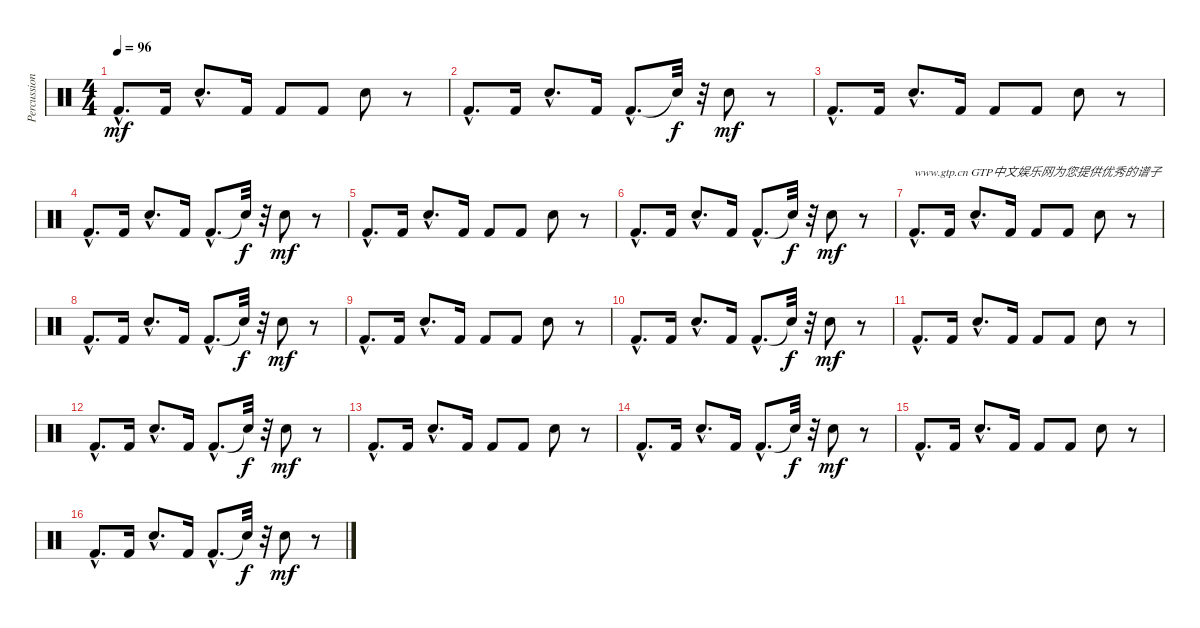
\track ("Percussion" "Percussion") {instrument percussion}
\staff {score}
\articulation defaults
\ts (4 4)
\tempo 96
\clef neutral
\ks c "Kick (hit) 2"{hac}.8{d dy mf} "Kick (hit) 2".16 "Electric Snare (hit)"{hac}.8{d} "Kick (hit) 2".16 "Kick (hit) 2".8 "Kick (hit) 2".8 "Electric Snare (hit)".8
r.8 |
"Kick (hit) 2"{hac}.8{d} "Kick (hit) 2".16 "Electric Snare (hit)"{hac}.8{d} "Kick (hit) 2".16 "Kick (hit) 2"{hac}.8{d} "Snare (hit)"{t}.32{dy f} r.32 "Electric Snare (hit)".8{dy mf} r.8 |
"Kick (hit) 2"{hac}.8{d} "Kick (hit) 2".16 "Electric Snare (hit)"{hac}.8{d} "Kick (hit) 2".16 "Kick (hit) 2".8 "Kick (hit) 2".8 "Electric Snare (hit)".8 r.8 |
"Kick (hit) 2"{hac}.8{d} "Kick (hit) 2".16 "Electric Snare (hit)"{hac}.8{d} "Kick (hit) 2".16 "Kick (hit) 2"{hac}.8{d} "Snare (hit)"{t}.32{dy f} r.32 "Electric Snare (hit)".8{dy mf} r.8 |
"Kick (hit) 2"{hac}.8{d} "Kick (hit) 2".16 "Electric Snare (hit)"{hac}.8{d} "Kick (hit) 2".16 "Kick (hit) 2".8 "Kick (hit) 2".8 "Electric Snare (hit)".8 r.8 |
"Kick (hit) 2"{hac}.8{d} "Kick (hit) 2".16 "Electric Snare (hit)"{hac}.8{d} "Kick (hit) 2".16 "Kick (hit) 2"{hac}.8{d} "Snare (hit)"{t}.32{dy f} r.32 "Electric Snare (hit)".8{dy mf} r.8 |
"Kick (hit) 2"{hac}.8{d txt "www.gtp.cn GTP中文娱乐网为您提供优秀的谱子"} "Kick (hit) 2".16 "Electric Snare (hit)"{hac}.8{d} "Kick (hit) 2".16 "Kick (hit) 2".8 "Kick (hit) 2".8 "Electric Snare (hit)".8 r.8 |
"Kick (hit) 2"{hac}.8{d} "Kick (hit) 2".16 "Electric Snare (hit)"{hac}.8{d} "Kick (hit) 2".16 "Kick (hit) 2"{hac}.8{d} "Snare (hit)"{t}.32{dy f} r.32 "Electric Snare (hit)".8{dy mf} r.8 |
"Kick (hit) 2"{hac}.8{d} "Kick (hit) 2".16 "Electric Snare (hit)"{hac}.8{d} "Kick (hit) 2".16 "Kick (hit) 2".8 "Kick (hit) 2".8 "Electric Snare (hit)".8 r.8 |
"Kick (hit) 2"{hac}.8{d} "Kick (hit) 2".16 "Electric Snare (hit)"{hac}.8{d} "Kick (hit) 2".16 "Kick (hit) 2"{hac}.8{d} "Snare (hit)"{t}.32{dy f} r.32 "Electric Snare (hit)".8{dy mf} r.8 |
"Kick (hit) 2"{hac}.8{d} "Kick (hit) 2".16 "Electric Snare (hit)"{hac}.8{d} "Kick (hit) 2".16 "Kick (hit) 2".8 "Kick (hit) 2".8 "Electric Snare (hit)".8 r.8 |
"Kick (hit) 2"{hac}.8{d} "Kick (hit) 2".16 "Electric Snare (hit)"{hac}.8{d} "Kick (hit) 2".16 "Kick (hit) 2"{hac}.8{d} "Snare (hit)"{t}.32{dy f} r.32 "Electric Snare (hit)".8{dy mf} r.8 |
"Kick (hit) 2"{hac}.8{d} "Kick (hit) 2".16 "Electric Snare (hit)"{hac}.8{d} "Kick (hit) 2".16 "Kick (hit) 2".8 "Kick (hit) 2".8 "Electric Snare (hit)".8 r.8 |
"Kick (hit) 2"{hac}.8{d} "Kick (hit) 2".16 "Electric Snare (hit)"{hac}.8{d} "Kick (hit) 2".16 "Kick (hit) 2"{hac}.8{d} "Snare (hit)"{t}.32{dy f} r.32 "Electric Snare (hit)".8{dy mf} r.8 |
"Kick (hit) 2"{hac}.8{d} "Kick (hit) 2".16 "Electric Snare (hit)"{hac}.8{d} "Kick (hit) 2".16 "Kick (hit) 2".8 "Kick (hit) 2".8 "Electric Snare (hit)".8 r.8 |
"Kick (hit) 2"{hac}.8{d} "Kick (hit) 2".16 "Electric Snare (hit)"{hac}.8{d} "Kick (hit) 2".16 "Kick (hit) 2"{hac}.8{d} "Snare (hit)"{t}.32{dy f} r.32 "Electric Snare (hit)".8{dy mf} r.8
